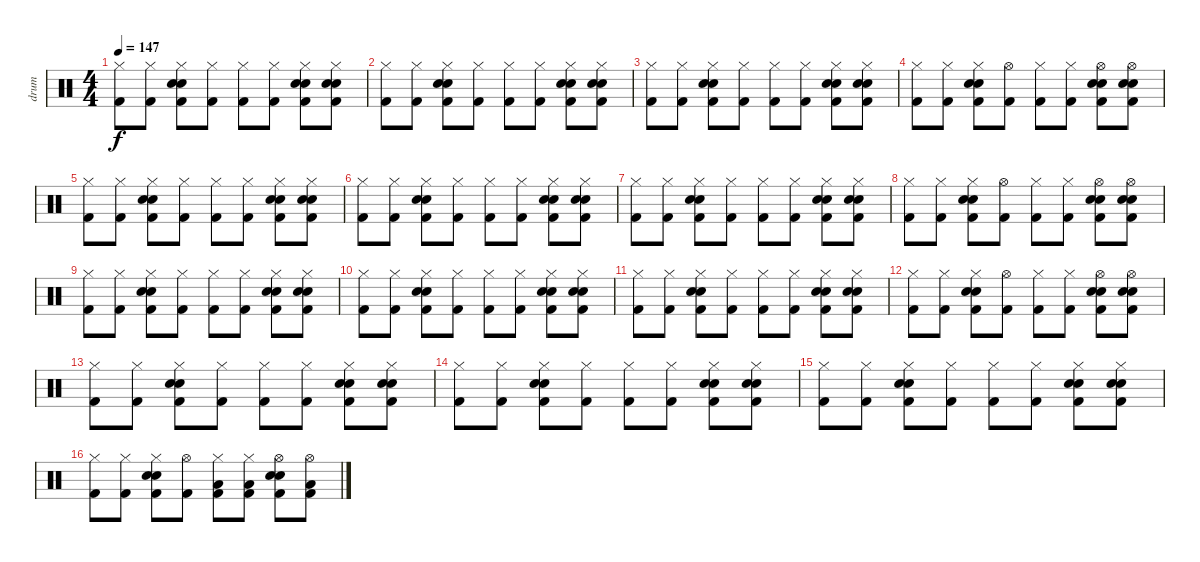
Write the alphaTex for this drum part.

\track ("drum" "drum") {instrument percussion}
\staff {score}
\articulation defaults
\ts (4 4)
\tempo 147
\clef neutral
\ks c
("Hi-Hat (closed)" "Kick (hit) 2").8{dy f} ("Hi-Hat (closed)" "Kick (hit) 2").8 ("Hi-Hat (closed)" "Hand Clap (hit)" "Electric Snare (hit)" "Kick (hit) 2").8 ("Hi-Hat (closed)" "Kick (hit) 2").8 ("Hi-Hat (closed)" "Kick (hit) 2").8 ("Hi-Hat (closed)" "Kick (hit) 2").8 ("Hi-Hat (closed)" "Hand Clap (hit)" "Electric Snare (hit)" "Kick (hit) 2").8 ("Hi-Hat (closed)" "Hand Clap (hit)" "Electric Snare (hit)" "Kick (hit) 2").8 |
("Hi-Hat (closed)" "Kick (hit) 2").8 ("Hi-Hat (closed)" "Kick (hit) 2").8 ("Hi-Hat (closed)" "Hand Clap (hit)" "Electric Snare (hit)" "Kick (hit) 2").8 ("Hi-Hat (closed)" "Kick (hit) 2").8 ("Hi-Hat (closed)" "Kick (hit) 2").8 ("Hi-Hat (closed)" "Kick (hit) 2").8 ("Hi-Hat (closed)" "Hand Clap (hit)" "Electric Snare (hit)" "Kick (hit) 2").8 ("Hi-Hat (closed)" "Hand Clap (hit)" "Electric Snare (hit)" "Kick (hit) 2").8 |
("Hi-Hat (closed)" "Kick (hit) 2").8 ("Hi-Hat (closed)" "Kick (hit) 2").8 ("Hi-Hat (closed)" "Hand Clap (hit)" "Electric Snare (hit)" "Kick (hit) 2").8 ("Hi-Hat (closed)" "Kick (hit) 2").8 ("Hi-Hat (closed)" "Kick (hit) 2").8 ("Hi-Hat (closed)" "Kick (hit) 2").8 ("Hi-Hat (closed)" "Hand Clap (hit)" "Electric Snare (hit)" "Kick (hit) 2").8 ("Hi-Hat (closed)" "Hand Clap (hit)" "Electric Snare (hit)" "Kick (hit) 2").8 |
("Hi-Hat (closed)" "Kick (hit) 2").8 ("Hi-Hat (closed)" "Kick (hit) 2").8 ("Hi-Hat (closed)" "Hand Clap (hit)" "Electric Snare (hit)" "Kick (hit) 2").8 ("Hi-Hat (open)" "Kick (hit) 2").8 ("Hi-Hat (closed)" "Kick (hit) 2").8 ("Hi-Hat (closed)" "Kick (hit) 2").8 ("Hi-Hat (open)" "Hand Clap (hit)" "Electric Snare (hit)" "Kick (hit) 2").8 ("Hi-Hat (open)" "Hand Clap (hit)" "Electric Snare (hit)" "Kick (hit) 2").8 |
("Hi-Hat (closed)" "Kick (hit) 2").8 ("Hi-Hat (closed)" "Kick (hit) 2").8 ("Hi-Hat (closed)" "Hand Clap (hit)" "Electric Snare (hit)" "Kick (hit) 2").8 ("Hi-Hat (closed)" "Kick (hit) 2").8 ("Hi-Hat (closed)" "Kick (hit) 2").8 ("Hi-Hat (closed)" "Kick (hit) 2").8 ("Hi-Hat (closed)" "Hand Clap (hit)" "Electric Snare (hit)" "Kick (hit) 2").8 ("Hi-Hat (closed)" "Hand Clap (hit)" "Electric Snare (hit)" "Kick (hit) 2").8 |
("Hi-Hat (closed)" "Kick (hit) 2").8 ("Hi-Hat (closed)" "Kick (hit) 2").8 ("Hi-Hat (closed)" "Hand Clap (hit)" "Electric Snare (hit)" "Kick (hit) 2").8 ("Hi-Hat (closed)" "Kick (hit) 2").8 ("Hi-Hat (closed)" "Kick (hit) 2").8 ("Hi-Hat (closed)" "Kick (hit) 2").8 ("Hi-Hat (closed)" "Hand Clap (hit)" "Electric Snare (hit)" "Kick (hit) 2").8 ("Hi-Hat (closed)" "Hand Clap (hit)" "Electric Snare (hit)" "Kick (hit) 2").8 |
("Hi-Hat (closed)" "Kick (hit) 2").8 ("Hi-Hat (closed)" "Kick (hit) 2").8 ("Hi-Hat (closed)" "Hand Clap (hit)" "Electric Snare (hit)" "Kick (hit) 2").8 ("Hi-Hat (closed)" "Kick (hit) 2").8 ("Hi-Hat (closed)" "Kick (hit) 2").8 ("Hi-Hat (closed)" "Kick (hit) 2").8 ("Hi-Hat (closed)" "Hand Clap (hit)" "Electric Snare (hit)" "Kick (hit) 2").8 ("Hi-Hat (closed)" "Hand Clap (hit)" "Electric Snare (hit)" "Kick (hit) 2").8 |
("Hi-Hat (closed)" "Kick (hit) 2").8 ("Hi-Hat (closed)" "Kick (hit) 2").8 ("Hi-Hat (closed)" "Hand Clap (hit)" "Electric Snare (hit)" "Kick (hit) 2").8 ("Hi-Hat (open)" "Kick (hit) 2").8 ("Hi-Hat (closed)" "Kick (hit) 2").8 ("Hi-Hat (closed)" "Kick (hit) 2").8 ("Hi-Hat (open)" "Hand Clap (hit)" "Electric Snare (hit)" "Kick (hit) 2").8 ("Hi-Hat (open)" "Hand Clap (hit)" "Electric Snare (hit)" "Kick (hit) 2").8 |
("Hi-Hat (closed)" "Kick (hit) 2").8 ("Hi-Hat (closed)" "Kick (hit) 2").8 ("Hi-Hat (closed)" "Hand Clap (hit)" "Electric Snare (hit)" "Kick (hit) 2").8 ("Hi-Hat (closed)" "Kick (hit) 2").8 ("Hi-Hat (closed)" "Kick (hit) 2").8 ("Hi-Hat (closed)" "Kick (hit) 2").8 ("Hi-Hat (closed)" "Hand Clap (hit)" "Electric Snare (hit)" "Kick (hit) 2").8 ("Hi-Hat (closed)" "Hand Clap (hit)" "Electric Snare (hit)" "Kick (hit) 2").8 |
("Hi-Hat (closed)" "Kick (hit) 2").8 ("Hi-Hat (closed)" "Kick (hit) 2").8 ("Hi-Hat (closed)" "Hand Clap (hit)" "Electric Snare (hit)" "Kick (hit) 2").8 ("Hi-Hat (closed)" "Kick (hit) 2").8 ("Hi-Hat (closed)" "Kick (hit) 2").8 ("Hi-Hat (closed)" "Kick (hit) 2").8 ("Hi-Hat (closed)" "Hand Clap (hit)" "Electric Snare (hit)" "Kick (hit) 2").8 ("Hi-Hat (closed)" "Hand Clap (hit)" "Electric Snare (hit)" "Kick (hit) 2").8 |
("Hi-Hat (closed)" "Kick (hit) 2").8 ("Hi-Hat (closed)" "Kick (hit) 2").8 ("Hi-Hat (closed)" "Hand Clap (hit)" "Electric Snare (hit)" "Kick (hit) 2").8 ("Hi-Hat (closed)" "Kick (hit) 2").8 ("Hi-Hat (closed)" "Kick (hit) 2").8 ("Hi-Hat (closed)" "Kick (hit) 2").8 ("Hi-Hat (closed)" "Hand Clap (hit)" "Electric Snare (hit)" "Kick (hit) 2").8 ("Hi-Hat (closed)" "Hand Clap (hit)" "Electric Snare (hit)" "Kick (hit) 2").8 |
("Hi-Hat (closed)" "Kick (hit) 2").8 ("Hi-Hat (closed)" "Kick (hit) 2").8 ("Hi-Hat (closed)" "Hand Clap (hit)" "Electric Snare (hit)" "Kick (hit) 2").8 ("Hi-Hat (open)" "Kick (hit) 2").8 ("Hi-Hat (closed)" "Kick (hit) 2").8 ("Hi-Hat (closed)" "Kick (hit) 2").8 ("Hi-Hat (open)" "Hand Clap (hit)" "Electric Snare (hit)" "Kick (hit) 2").8 ("Hi-Hat (open)" "Hand Clap (hit)" "Electric Snare (hit)" "Kick (hit) 2").8 |
("Hi-Hat (closed)" "Kick (hit) 2").8 ("Hi-Hat (closed)" "Kick (hit) 2").8 ("Hi-Hat (closed)" "Hand Clap (hit)" "Electric Snare (hit)" "Kick (hit) 2").8 ("Hi-Hat (closed)" "Kick (hit) 2").8 ("Hi-Hat (closed)" "Kick (hit) 2").8 ("Hi-Hat (closed)" "Kick (hit) 2").8 ("Hi-Hat (closed)" "Hand Clap (hit)" "Electric Snare (hit)" "Kick (hit) 2").8 ("Hi-Hat (closed)" "Hand Clap (hit)" "Electric Snare (hit)" "Kick (hit) 2").8 |
("Hi-Hat (closed)" "Kick (hit) 2").8 ("Hi-Hat (closed)" "Kick (hit) 2").8 ("Hi-Hat (closed)" "Hand Clap (hit)" "Electric Snare (hit)" "Kick (hit) 2").8 ("Hi-Hat (closed)" "Kick (hit) 2").8 ("Hi-Hat (closed)" "Kick (hit) 2").8 ("Hi-Hat (closed)" "Kick (hit) 2").8 ("Hi-Hat (closed)" "Hand Clap (hit)" "Electric Snare (hit)" "Kick (hit) 2").8 ("Hi-Hat (closed)" "Hand Clap (hit)" "Electric Snare (hit)" "Kick (hit) 2").8 |
("Hi-Hat (closed)" "Kick (hit) 2").8 ("Hi-Hat (closed)" "Kick (hit) 2").8 ("Hi-Hat (closed)" "Hand Clap (hit)" "Electric Snare (hit)" "Kick (hit) 2").8 ("Hi-Hat (closed)" "Kick (hit) 2").8 ("Hi-Hat (closed)" "Kick (hit) 2").8 ("Hi-Hat (closed)" "Kick (hit) 2").8 ("Hi-Hat (closed)" "Hand Clap (hit)" "Electric Snare (hit)" "Kick (hit) 2").8 ("Hi-Hat (closed)" "Hand Clap (hit)" "Electric Snare (hit)" "Kick (hit) 2").8 |
("Hi-Hat (closed)" "Kick (hit) 2").8 ("Hi-Hat (closed)" "Kick (hit) 2").8 ("Hi-Hat (closed)" "Hand Clap (hit)" "Electric Snare (hit)" "Kick (hit) 2").8 ("Hi-Hat (open)" "Kick (hit) 2").8 ("Hi-Hat (closed)" "Low Floor Tom (hit)" "Kick (hit) 2").8 ("Hi-Hat (closed)" "Low Floor Tom (hit)" "Kick (hit) 2").8 ("Hi-Hat (open)" "Hand Clap (hit)" "Electric Snare (hit)" "Kick (hit) 2").8 ("Hi-Hat (open)" "Low Floor Tom (hit)" "Kick (hit) 2").8
